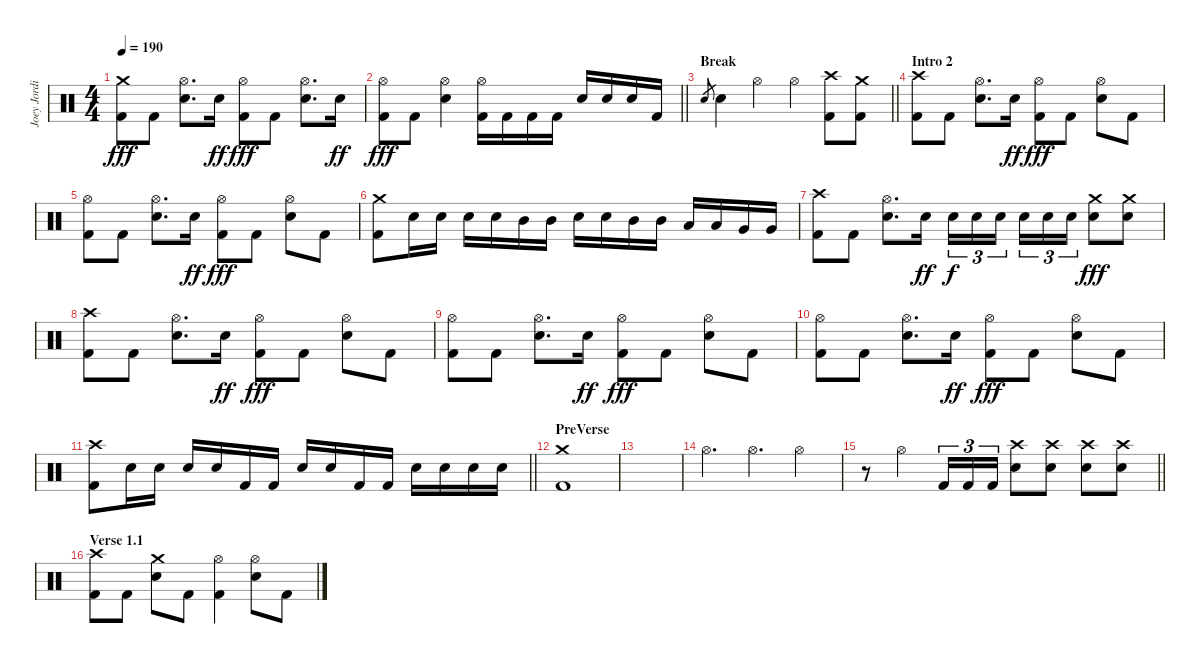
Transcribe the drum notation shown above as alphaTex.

\track ("Joey Jordison" "Joey Jordi") {instrument percussion}
\staff {score}
\articulation defaults
\ts (4 4)
\tempo 190
\clef neutral
\ks c
("Crash medium (hit)" "Kick (hit) 2").8{dy fff} "Kick (hit) 2".8 ("Hi-Hat (open)" "Electric Snare (hit)").8{d} "Electric Snare (hit)".16{dy ff} ("Hi-Hat (open)" "Kick (hit) 2").8{dy fff} "Kick (hit) 2".8 ("Hi-Hat (open)" "Electric Snare (hit)").8{d} "Electric Snare (hit)".16{dy ff} |
\barLineRight lightlight
("Hi-Hat (open)" "Kick (hit) 2").8{dy fff} "Kick (hit) 2".8 ("Hi-Hat (open)" "Electric Snare (hit)").4 ("Hi-Hat (open)" "Kick (hit) 2").16 "Kick (hit) 2".16 "Kick (hit) 2".16 "Kick (hit) 2".16 "Electric Snare (hit)".16 "Electric Snare (hit)".16 "Electric Snare (hit)".16 "Kick (hit) 2".16 |
\section ("" "Break")
\barLineRight lightlight "Electric Snare (hit)".8{gr} "Electric Snare (hit)".4 "Hi-Hat (open)".4 "Hi-Hat (open)".4
("Crash high (hit)" "Kick (hit) 2").8 ("Crash medium (hit)" "Kick (hit) 2").8 |
\section ("" "Intro 2")
("Crash high (hit)" "Kick (hit) 2").8 "Kick (hit) 2".8 ("Hi-Hat (open)" "Electric Snare (hit)").8{d} "Electric Snare (hit)".16{dy ff} ("Hi-Hat (open)" "Kick (hit) 2").8{dy fff} "Kick (hit) 2".8 ("Hi-Hat (open)" "Electric Snare (hit)").8 "Kick (hit) 2".8 |
("Hi-Hat (open)" "Kick (hit) 2").8 "Kick (hit) 2".8 ("Hi-Hat (open)" "Electric Snare (hit)").8{d} "Electric Snare (hit)".16{dy ff} ("Hi-Hat (open)" "Kick (hit) 2").8{dy fff} "Kick (hit) 2".8 ("Hi-Hat (open)" "Electric Snare (hit)").8 "Kick (hit) 2".8 |
("Crash medium (hit)" "Kick (hit) 2").8 "Electric Snare (hit)".16 "Electric Snare (hit)".16 "Electric Snare (hit)".16 "Electric Snare (hit)".16 "Mid Tom (hit)".16 "Mid Tom (hit)".16 "Electric Snare (hit)".16 "Electric Snare (hit)".16 "Mid Tom (hit)".16 "Mid Tom (hit)".16 "Low Tom (hit)".16 "Low Tom (hit)".16 "Very Low Tom (hit)".16 "Very Low Tom (hit)".16 |
("Crash high (hit)" "Kick (hit) 2").8 "Kick (hit) 2".8 ("Hi-Hat (open)" "Electric Snare (hit)").8{d} "Electric Snare (hit)".16{dy ff} "Electric Snare (hit)".16{tu (3 2) dy f} "Electric Snare (hit)".16{tu (3 2)} "Electric Snare (hit)".16{tu (3 2) beam splitsecondary} "Electric Snare (hit)".16{tu (3 2)} "Electric Snare (hit)".16{tu (3 2)} "Electric Snare (hit)".16{tu (3 2)} ("Crash medium (hit)" "Electric Snare (hit)").8{dy fff} ("Crash medium (hit)" "Electric Snare (hit)").8 |
("Crash high (hit)" "Kick (hit) 2").8 "Kick (hit) 2".8 ("Hi-Hat (open)" "Electric Snare (hit)").8{d} "Electric Snare (hit)".16{dy ff} ("Hi-Hat (open)" "Kick (hit) 2").8{dy fff} "Kick (hit) 2".8 ("Hi-Hat (open)" "Electric Snare (hit)").8 "Kick (hit) 2".8 |
("Hi-Hat (open)" "Kick (hit) 2").8 "Kick (hit) 2".8 ("Hi-Hat (open)" "Electric Snare (hit)").8{d} "Electric Snare (hit)".16{dy ff} ("Hi-Hat (open)" "Kick (hit) 2").8{dy fff} "Kick (hit) 2".8 ("Hi-Hat (open)" "Electric Snare (hit)").8 "Kick (hit) 2".8 |
("Hi-Hat (open)" "Kick (hit) 2").8 "Kick (hit) 2".8 ("Hi-Hat (open)" "Electric Snare (hit)").8{d} "Electric Snare (hit)".16{dy ff} ("Hi-Hat (open)" "Kick (hit) 2").8{dy fff} "Kick (hit) 2".8 ("Hi-Hat (open)" "Electric Snare (hit)").8 "Kick (hit) 2".8 |
\barLineRight lightlight
("Crash high (hit)" "Kick (hit) 2").8 "Electric Snare (hit)".16 "Electric Snare (hit)".16 "Electric Snare (hit)".16 "Electric Snare (hit)".16 "Kick (hit) 2".16 "Kick (hit) 2".16 "Electric Snare (hit)".16 "Electric Snare (hit)".16 "Kick (hit) 2".16 "Kick (hit) 2".16 "Electric Snare (hit)".16 "Electric Snare (hit)".16 "Electric Snare (hit)".16 "Electric Snare (hit)".16 |
\section ("" "PreVerse")
("Crash medium (hit)" "Kick (hit) 2").1 |
|
"Hi-Hat (open)".4{d} "Hi-Hat (open)".4{d} "Hi-Hat (open)".4 |
\barLineRight lightlight
r.8 "Hi-Hat (open)".4 "Kick (hit) 2".16{tu (3 2)} "Kick (hit) 2".16{tu (3 2)} "Kick (hit) 2".16{tu (3 2)} ("Crash high (hit)" "Electric Snare (hit)").8 ("Crash high (hit)" "Electric Snare (hit)").8 ("Crash high (hit)" "Electric Snare (hit)").8 ("Crash high (hit)" "Electric Snare (hit)").8 |
\section ("" "Verse 1.1")
("Crash high (hit)" "Kick (hit) 2").8 "Kick (hit) 2".8 ("Crash medium (hit)" "Electric Snare (hit)").8 "Kick (hit) 2".8 ("Hi-Hat (open)" "Kick (hit) 2").4 ("Hi-Hat (open)" "Electric Snare (hit)").8 "Kick (hit) 2".8
